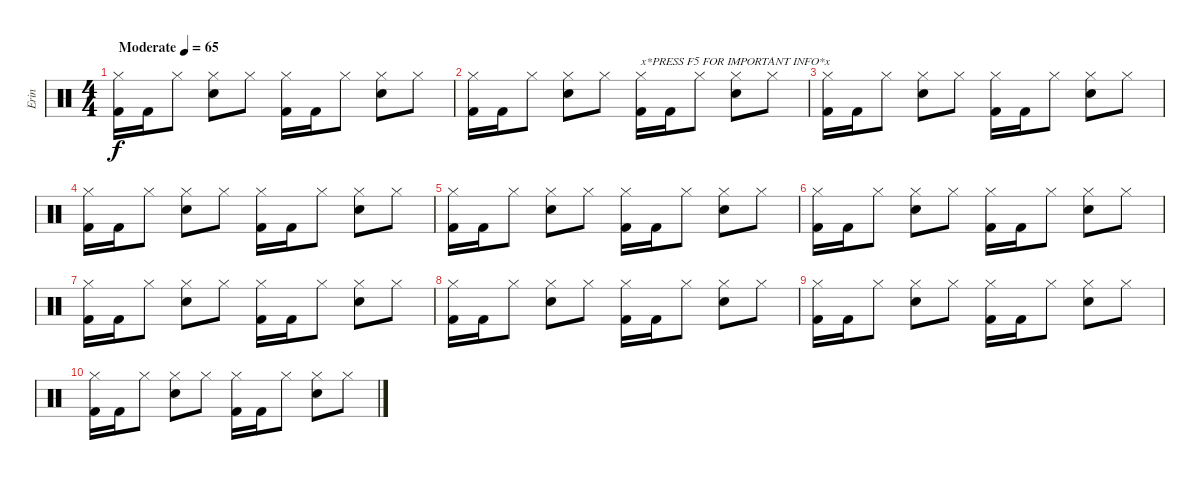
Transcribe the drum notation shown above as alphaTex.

\track ("Erin" "Erin") {instrument percussion}
\staff {score}
\articulation defaults
\ts (4 4)
\tempo (65 "Moderate")
\clef neutral
\ks c
("Hi-Hat (closed)" "Kick (hit) 2").16{dy f volume 2} "Kick (hit) 2".16{volume 13} "Hi-Hat (closed)".8 ("Hi-Hat (closed)" "Electric Snare (hit)").8 "Hi-Hat (closed)".8 ("Hi-Hat (closed)" "Kick (hit) 2").16 "Kick (hit) 2".16 "Hi-Hat (closed)".8 ("Hi-Hat (closed)" "Electric Snare (hit)").8 "Hi-Hat (closed)".8 |
("Hi-Hat (closed)" "Kick (hit) 2").16 "Kick (hit) 2".16 "Hi-Hat (closed)".8 ("Hi-Hat (closed)" "Electric Snare (hit)").8 "Hi-Hat (closed)".8 ("Hi-Hat (closed)" "Kick (hit) 2").16{txt "x*PRESS F5 FOR IMPORTANT INFO*x"} "Kick (hit) 2".16 "Hi-Hat (closed)".8 ("Hi-Hat (closed)" "Electric Snare (hit)").8 "Hi-Hat (closed)".8 |
("Hi-Hat (closed)" "Kick (hit) 2").16 "Kick (hit) 2".16 "Hi-Hat (closed)".8 ("Hi-Hat (closed)" "Electric Snare (hit)").8 "Hi-Hat (closed)".8 ("Hi-Hat (closed)" "Kick (hit) 2").16 "Kick (hit) 2".16 "Hi-Hat (closed)".8 ("Hi-Hat (closed)" "Electric Snare (hit)").8 "Hi-Hat (closed)".8 |
("Hi-Hat (closed)" "Kick (hit) 2").16 "Kick (hit) 2".16 "Hi-Hat (closed)".8 ("Hi-Hat (closed)" "Electric Snare (hit)").8 "Hi-Hat (closed)".8 ("Hi-Hat (closed)" "Kick (hit) 2").16 "Kick (hit) 2".16 "Hi-Hat (closed)".8 ("Hi-Hat (closed)" "Electric Snare (hit)").8 "Hi-Hat (closed)".8 |
("Hi-Hat (closed)" "Kick (hit) 2").16 "Kick (hit) 2".16 "Hi-Hat (closed)".8 ("Hi-Hat (closed)" "Electric Snare (hit)").8 "Hi-Hat (closed)".8 ("Hi-Hat (closed)" "Kick (hit) 2").16 "Kick (hit) 2".16 "Hi-Hat (closed)".8 ("Hi-Hat (closed)" "Electric Snare (hit)").8 "Hi-Hat (closed)".8 |
("Hi-Hat (closed)" "Kick (hit) 2").16 "Kick (hit) 2".16 "Hi-Hat (closed)".8 ("Hi-Hat (closed)" "Electric Snare (hit)").8 "Hi-Hat (closed)".8 ("Hi-Hat (closed)" "Kick (hit) 2").16 "Kick (hit) 2".16 "Hi-Hat (closed)".8 ("Hi-Hat (closed)" "Electric Snare (hit)").8 "Hi-Hat (closed)".8 |
("Hi-Hat (closed)" "Kick (hit) 2").16{volume 2} "Kick (hit) 2".16 "Hi-Hat (closed)".8 ("Hi-Hat (closed)" "Electric Snare (hit)").8 "Hi-Hat (closed)".8 ("Hi-Hat (closed)" "Kick (hit) 2").16 "Kick (hit) 2".16 "Hi-Hat (closed)".8 ("Hi-Hat (closed)" "Electric Snare (hit)").8 "Hi-Hat (closed)".8 |
("Hi-Hat (closed)" "Kick (hit) 2").16 "Kick (hit) 2".16 "Hi-Hat (closed)".8 ("Hi-Hat (closed)" "Electric Snare (hit)").8 "Hi-Hat (closed)".8 ("Hi-Hat (closed)" "Kick (hit) 2").16 "Kick (hit) 2".16 "Hi-Hat (closed)".8 ("Hi-Hat (closed)" "Electric Snare (hit)").8 "Hi-Hat (closed)".8 |
("Hi-Hat (closed)" "Kick (hit) 2").16 "Kick (hit) 2".16 "Hi-Hat (closed)".8 ("Hi-Hat (closed)" "Electric Snare (hit)").8 "Hi-Hat (closed)".8 ("Hi-Hat (closed)" "Kick (hit) 2").16 "Kick (hit) 2".16 "Hi-Hat (closed)".8 ("Hi-Hat (closed)" "Electric Snare (hit)").8 "Hi-Hat (closed)".8 |
("Hi-Hat (closed)" "Kick (hit) 2").16{volume 0} "Kick (hit) 2".16 "Hi-Hat (closed)".8 ("Hi-Hat (closed)" "Electric Snare (hit)").8 "Hi-Hat (closed)".8 ("Hi-Hat (closed)" "Kick (hit) 2").16 "Kick (hit) 2".16 "Hi-Hat (closed)".8 ("Hi-Hat (closed)" "Electric Snare (hit)").8 "Hi-Hat (closed)".8
